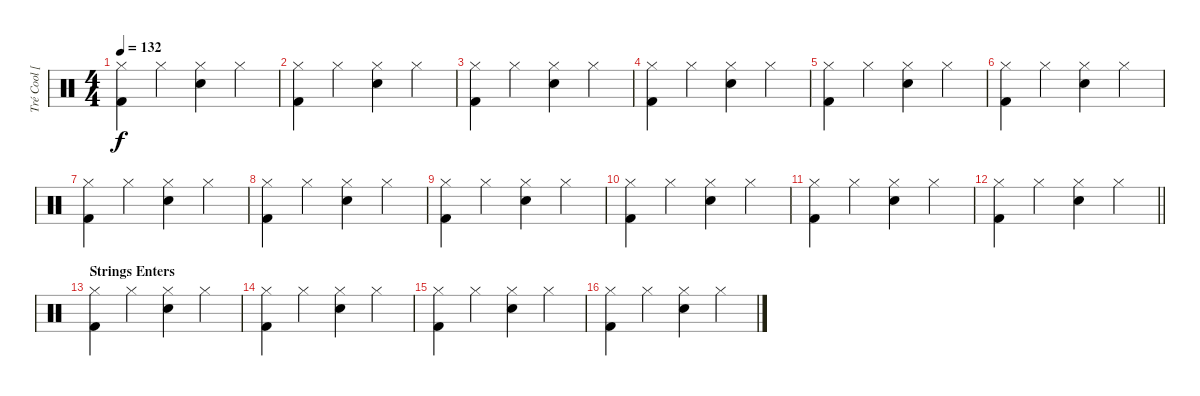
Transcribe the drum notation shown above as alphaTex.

\track ("Tré Cool [Drums]" "Tré Cool [") {instrument percussion}
\staff {score}
\articulation defaults
\ts (4 4)
\tempo 132
\clef neutral
\ks c
("Hi-Hat (closed)" "Kick (hit) 2").4{dy f} "Hi-Hat (closed)".4 ("Hi-Hat (closed)" "Electric Snare (hit)").4 "Hi-Hat (closed)".4 |
("Hi-Hat (closed)" "Kick (hit) 2").4 "Hi-Hat (closed)".4 ("Hi-Hat (closed)" "Electric Snare (hit)").4 "Hi-Hat (closed)".4 |
("Hi-Hat (closed)" "Kick (hit) 2").4 "Hi-Hat (closed)".4 ("Hi-Hat (closed)" "Electric Snare (hit)").4 "Hi-Hat (closed)".4 |
("Hi-Hat (closed)" "Kick (hit) 2").4 "Hi-Hat (closed)".4 ("Hi-Hat (closed)" "Electric Snare (hit)").4 "Hi-Hat (closed)".4 |
("Hi-Hat (closed)" "Kick (hit) 2").4 "Hi-Hat (closed)".4 ("Hi-Hat (closed)" "Electric Snare (hit)").4 "Hi-Hat (closed)".4 |
("Hi-Hat (closed)" "Kick (hit) 2").4 "Hi-Hat (closed)".4 ("Hi-Hat (closed)" "Electric Snare (hit)").4 "Hi-Hat (closed)".4 |
("Hi-Hat (closed)" "Kick (hit) 2").4 "Hi-Hat (closed)".4 ("Hi-Hat (closed)" "Electric Snare (hit)").4 "Hi-Hat (closed)".4 |
("Hi-Hat (closed)" "Kick (hit) 2").4 "Hi-Hat (closed)".4 ("Hi-Hat (closed)" "Electric Snare (hit)").4 "Hi-Hat (closed)".4 |
("Hi-Hat (closed)" "Kick (hit) 2").4 "Hi-Hat (closed)".4 ("Hi-Hat (closed)" "Electric Snare (hit)").4 "Hi-Hat (closed)".4 |
("Hi-Hat (closed)" "Kick (hit) 2").4 "Hi-Hat (closed)".4 ("Hi-Hat (closed)" "Electric Snare (hit)").4 "Hi-Hat (closed)".4 |
("Hi-Hat (closed)" "Kick (hit) 2").4 "Hi-Hat (closed)".4 ("Hi-Hat (closed)" "Electric Snare (hit)").4 "Hi-Hat (closed)".4 |
\barLineRight lightlight
("Hi-Hat (closed)" "Kick (hit) 2").4 "Hi-Hat (closed)".4 ("Hi-Hat (closed)" "Electric Snare (hit)").4 "Hi-Hat (closed)".4 |
\section ("" "Strings Enters")
("Hi-Hat (closed)" "Kick (hit) 2").4 "Hi-Hat (closed)".4 ("Hi-Hat (closed)" "Electric Snare (hit)").4 "Hi-Hat (closed)".4 |
("Hi-Hat (closed)" "Kick (hit) 2").4 "Hi-Hat (closed)".4 ("Hi-Hat (closed)" "Electric Snare (hit)").4 "Hi-Hat (closed)".4 |
("Hi-Hat (closed)" "Kick (hit) 2").4 "Hi-Hat (closed)".4 ("Hi-Hat (closed)" "Electric Snare (hit)").4 "Hi-Hat (closed)".4 |
("Hi-Hat (closed)" "Kick (hit) 2").4 "Hi-Hat (closed)".4 ("Hi-Hat (closed)" "Electric Snare (hit)").4 "Hi-Hat (closed)".4
